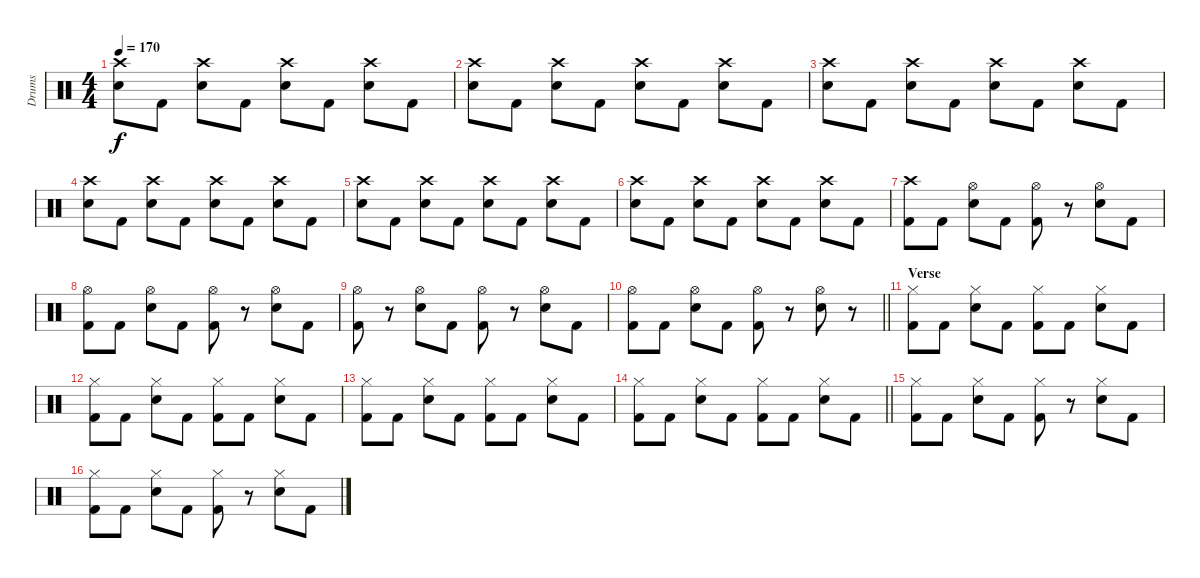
\track ("Drums" "Drums") {instrument percussion}
\staff {score}
\articulation defaults
\ts (4 4)
\tempo 170
\clef neutral
\ks c
("Crash high (hit)" "Electric Snare (hit)").8{dy f} "Kick (hit) 2".8 ("Crash high (hit)" "Electric Snare (hit)").8 "Kick (hit) 2".8 ("Crash high (hit)" "Electric Snare (hit)").8 "Kick (hit) 2".8 ("Crash high (hit)" "Electric Snare (hit)").8 "Kick (hit) 2".8 |
("Crash high (hit)" "Electric Snare (hit)").8 "Kick (hit) 2".8 ("Crash high (hit)" "Electric Snare (hit)").8 "Kick (hit) 2".8 ("Crash high (hit)" "Electric Snare (hit)").8 "Kick (hit) 2".8 ("Crash high (hit)" "Electric Snare (hit)").8 "Kick (hit) 2".8 |
("Crash high (hit)" "Electric Snare (hit)").8 "Kick (hit) 2".8 ("Crash high (hit)" "Electric Snare (hit)").8 "Kick (hit) 2".8 ("Crash high (hit)" "Electric Snare (hit)").8 "Kick (hit) 2".8 ("Crash high (hit)" "Electric Snare (hit)").8 "Kick (hit) 2".8 |
("Crash high (hit)" "Electric Snare (hit)").8 "Kick (hit) 2".8 ("Crash high (hit)" "Electric Snare (hit)").8 "Kick (hit) 2".8 ("Crash high (hit)" "Electric Snare (hit)").8 "Kick (hit) 2".8 ("Crash high (hit)" "Electric Snare (hit)").8 "Kick (hit) 2".8 |
("Crash high (hit)" "Electric Snare (hit)").8 "Kick (hit) 2".8 ("Crash high (hit)" "Electric Snare (hit)").8 "Kick (hit) 2".8 ("Crash high (hit)" "Electric Snare (hit)").8 "Kick (hit) 2".8 ("Crash high (hit)" "Electric Snare (hit)").8 "Kick (hit) 2".8 |
("Crash high (hit)" "Electric Snare (hit)").8 "Kick (hit) 2".8 ("Crash high (hit)" "Electric Snare (hit)").8 "Kick (hit) 2".8 ("Crash high (hit)" "Electric Snare (hit)").8 "Kick (hit) 2".8 ("Crash high (hit)" "Electric Snare (hit)").8 "Kick (hit) 2".8 |
("Crash high (hit)" "Kick (hit) 2").8 "Kick (hit) 2".8 ("Hi-Hat (open)" "Electric Snare (hit)").8 "Kick (hit) 2".8 ("Hi-Hat (open)" "Kick (hit) 2").8 r.8 ("Hi-Hat (open)" "Electric Snare (hit)").8 "Kick (hit) 2".8 |
("Hi-Hat (open)" "Kick (hit) 2").8 "Kick (hit) 2".8 ("Hi-Hat (open)" "Electric Snare (hit)").8 "Kick (hit) 2".8 ("Hi-Hat (open)" "Kick (hit) 2").8 r.8 ("Hi-Hat (open)" "Electric Snare (hit)").8 "Kick (hit) 2".8 |
("Hi-Hat (open)" "Kick (hit) 2").8 r.8 ("Hi-Hat (open)" "Electric Snare (hit)").8 "Kick (hit) 2".8 ("Hi-Hat (open)" "Kick (hit) 2").8 r.8 ("Hi-Hat (open)" "Electric Snare (hit)").8 "Kick (hit) 2".8 |
\barLineRight lightlight
("Hi-Hat (open)" "Kick (hit) 2").8 "Kick (hit) 2".8 ("Hi-Hat (open)" "Electric Snare (hit)").8 "Kick (hit) 2".8 ("Hi-Hat (open)" "Kick (hit) 2").8 r.8 ("Hi-Hat (open)" "Electric Snare (hit)").8 r.8 |
\section ("" "Verse")
("Hi-Hat (closed)" "Kick (hit) 2").8 "Kick (hit) 2".8 ("Hi-Hat (closed)" "Electric Snare (hit)").8 "Kick (hit) 2".8 ("Hi-Hat (closed)" "Kick (hit) 2").8 "Kick (hit) 2".8 ("Hi-Hat (closed)" "Electric Snare (hit)").8 "Kick (hit) 2".8 |
("Hi-Hat (closed)" "Kick (hit) 2").8 "Kick (hit) 2".8 ("Hi-Hat (closed)" "Electric Snare (hit)").8 "Kick (hit) 2".8 ("Hi-Hat (closed)" "Kick (hit) 2").8 "Kick (hit) 2".8 ("Hi-Hat (closed)" "Electric Snare (hit)").8 "Kick (hit) 2".8 |
("Hi-Hat (closed)" "Kick (hit) 2").8 "Kick (hit) 2".8 ("Hi-Hat (closed)" "Electric Snare (hit)").8 "Kick (hit) 2".8 ("Hi-Hat (closed)" "Kick (hit) 2").8 "Kick (hit) 2".8 ("Hi-Hat (closed)" "Electric Snare (hit)").8 "Kick (hit) 2".8 |
\barLineRight lightlight
("Hi-Hat (closed)" "Kick (hit) 2").8 "Kick (hit) 2".8 ("Hi-Hat (closed)" "Electric Snare (hit)").8 "Kick (hit) 2".8 ("Hi-Hat (closed)" "Kick (hit) 2").8 "Kick (hit) 2".8 ("Hi-Hat (closed)" "Electric Snare (hit)").8 "Kick (hit) 2".8 |
("Hi-Hat (closed)" "Kick (hit) 2").8 "Kick (hit) 2".8 ("Hi-Hat (closed)" "Electric Snare (hit)").8 "Kick (hit) 2".8 ("Hi-Hat (closed)" "Kick (hit) 2").8 r.8 ("Hi-Hat (closed)" "Electric Snare (hit)").8 "Kick (hit) 2".8 |
("Hi-Hat (closed)" "Kick (hit) 2").8 "Kick (hit) 2".8 ("Hi-Hat (closed)" "Electric Snare (hit)").8 "Kick (hit) 2".8 ("Hi-Hat (closed)" "Kick (hit) 2").8 r.8 ("Hi-Hat (closed)" "Electric Snare (hit)").8 "Kick (hit) 2".8
